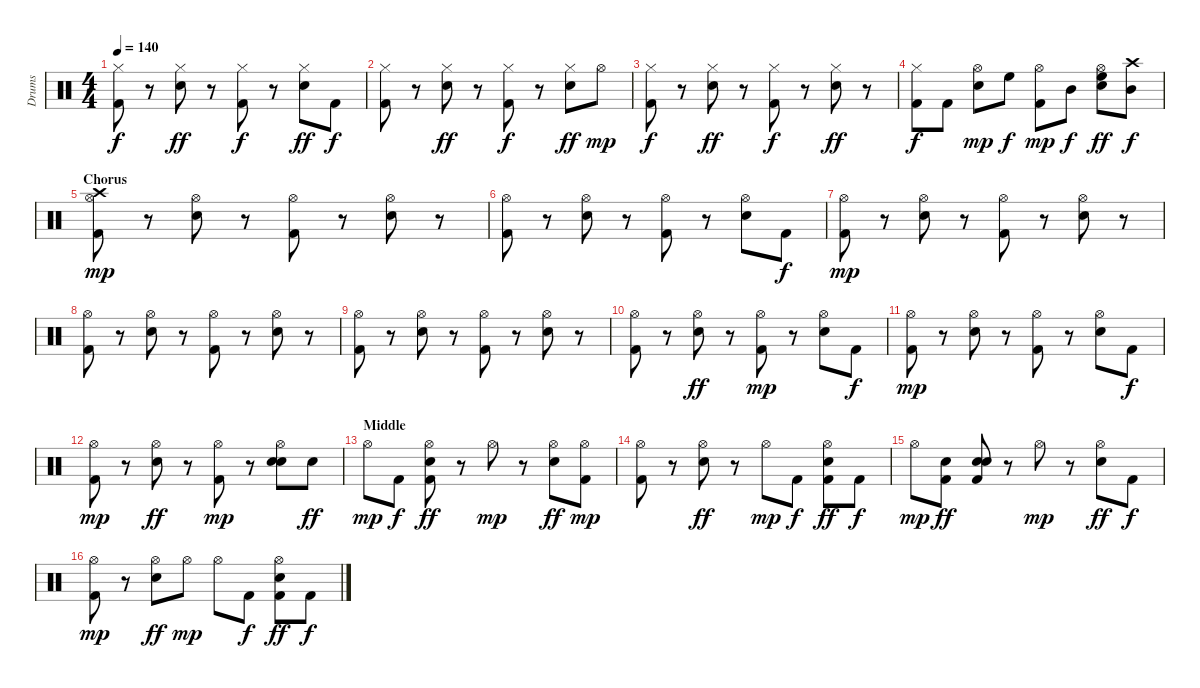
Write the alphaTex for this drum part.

\track ("Drums" "Drums") {instrument percussion}
\staff {score}
\articulation defaults
\ts (4 4)
\tempo 140
\clef neutral
\ks c
("Hi-Hat (closed)" "Kick (hit) 2").8{dy f} r.8 ("Snare (hit) 2" "Hi-Hat (closed)").8{dy ff} r.8 ("Hi-Hat (closed)" "Kick (hit) 2").8{dy f} r.8 ("Snare (hit) 2" "Hi-Hat (closed)").8{dy ff} "Kick (hit) 2".8{dy f} |
("Kick (hit) 2" "Hi-Hat (closed)").8 r.8 ("Snare (hit) 2" "Hi-Hat (closed)").8{dy ff} r.8 ("Kick (hit) 2" "Hi-Hat (closed)").8{dy f} r.8 ("Snare (hit) 2" "Hi-Hat (closed)").8{dy ff} "Hi-Hat (open)".8{dy mp} |
("Hi-Hat (closed)" "Kick (hit) 2").8{dy f} r.8 ("Hi-Hat (closed)" "Snare (hit) 2").8{dy ff} r.8 ("Hi-Hat (closed)" "Kick (hit) 2").8{dy f} r.8 ("Snare (hit) 2" "Hi-Hat (closed)").8{dy ff} r.8 |
("Hi-Hat (closed)" "Kick (hit) 2").8{dy f} "Kick (hit) 2".8 ("Snare (hit) 2" "Hi-Hat (open)").8{dy mp} "High Floor Tom (hit)".8{dy f} ("Kick (hit) 2" "Hi-Hat (open)").8{dy mp} "Mid Tom (hit)".8{dy f} ("Hi-Hat (open)" "Snare (hit) 2" "High Floor Tom (hit)").8{dy ff} ("Crash high (hit)" "Mid Tom (hit)").8{dy f} |
\section ("" "Chorus")
("Hi-Hat (open)" "Crash high (hit)" "Kick (hit) 2").8{dy mp} r.8 ("Snare (hit) 2" "Hi-Hat (open)").8 r.8 ("Kick (hit) 2" "Hi-Hat (open)").8 r.8 ("Snare (hit) 2" "Hi-Hat (open)").8 r.8 |
("Kick (hit) 2" "Hi-Hat (open)").8 r.8 ("Snare (hit) 2" "Hi-Hat (open)").8 r.8 ("Kick (hit) 2" "Hi-Hat (open)").8 r.8 ("Snare (hit) 2" "Hi-Hat (open)").8 "Kick (hit) 2".8{dy f} |
("Hi-Hat (open)" "Kick (hit) 2").8{dy mp} r.8 ("Snare (hit) 2" "Hi-Hat (open)").8 r.8 ("Kick (hit) 2" "Hi-Hat (open)").8 r.8 ("Snare (hit) 2" "Hi-Hat (open)").8 r.8 |
("Kick (hit) 2" "Hi-Hat (open)").8 r.8 ("Snare (hit) 2" "Hi-Hat (open)").8 r.8 ("Hi-Hat (open)" "Kick (hit) 2").8 r.8 ("Snare (hit) 2" "Hi-Hat (open)").8 r.8 |
("Kick (hit) 2" "Hi-Hat (open)").8 r.8 ("Snare (hit) 2" "Hi-Hat (open)").8 r.8 ("Kick (hit) 2" "Hi-Hat (open)").8 r.8 ("Snare (hit) 2" "Hi-Hat (open)").8 r.8 |
("Hi-Hat (open)" "Kick (hit) 2").8 r.8 ("Hi-Hat (open)" "Snare (hit) 2").8{dy ff} r.8 ("Hi-Hat (open)" "Kick (hit) 2").8{dy mp} r.8 ("Snare (hit) 2" "Hi-Hat (open)").8 "Kick (hit) 2".8{dy f} |
("Kick (hit) 2" "Hi-Hat (open)").8{dy mp} r.8 ("Snare (hit) 2" "Hi-Hat (open)").8 r.8 ("Kick (hit) 2" "Hi-Hat (open)").8 r.8 ("Snare (hit) 2" "Hi-Hat (open)").8 "Kick (hit) 2".8{dy f} |
("Kick (hit) 2" "Hi-Hat (open)").8{dy mp} r.8 ("Hi-Hat (open)" "Snare (hit) 2").8{dy ff} r.8 ("Hi-Hat (open)" "Kick (hit) 2").8{dy mp} r.8 ("Snare (hit) 2" "Snare (hit) 2" "Hi-Hat (open)").8 "Snare (hit) 2".8{dy ff} |
\section ("" "Middle")
"Hi-Hat (open)".8{dy mp} "Kick (hit) 2".8{dy f} ("Kick (hit) 2" "Hi-Hat (open)" "Snare (hit) 2").8{dy ff} r.8 "Hi-Hat (open)".8{dy mp} r.8 ("Hi-Hat (open)" "Snare (hit) 2").8{dy ff} ("Kick (hit) 2" "Hi-Hat (open)").8{dy mp} |
("Kick (hit) 2" "Hi-Hat (open)").8 r.8 ("Hi-Hat (open)" "Snare (hit) 2").8{dy ff} r.8 "Hi-Hat (open)".8{dy mp} "Kick (hit) 2".8{dy f} ("Kick (hit) 2" "Hi-Hat (open)" "Snare (hit) 2").8{dy ff} "Kick (hit) 2".8{dy f} |
"Hi-Hat (open)".8{dy mp} ("Kick (hit) 2" "Snare (hit) 2").8{dy ff} ("Snare (hit) 2" "Kick (hit) 2" "Snare (hit) 2").8 r.8 "Hi-Hat (open)".8{dy mp} r.8 ("Hi-Hat (open)" "Snare (hit) 2").8{dy ff} "Kick (hit) 2".8{dy f} |
("Kick (hit) 2" "Hi-Hat (open)").8{dy mp} r.8 ("Hi-Hat (open)" "Snare (hit) 2").8{dy ff} "Hi-Hat (open)".8{dy mp} "Hi-Hat (open)".8 "Kick (hit) 2".8{dy f} ("Kick (hit) 2" "Hi-Hat (open)" "Snare (hit) 2").8{dy ff} "Kick (hit) 2".8{dy f}
